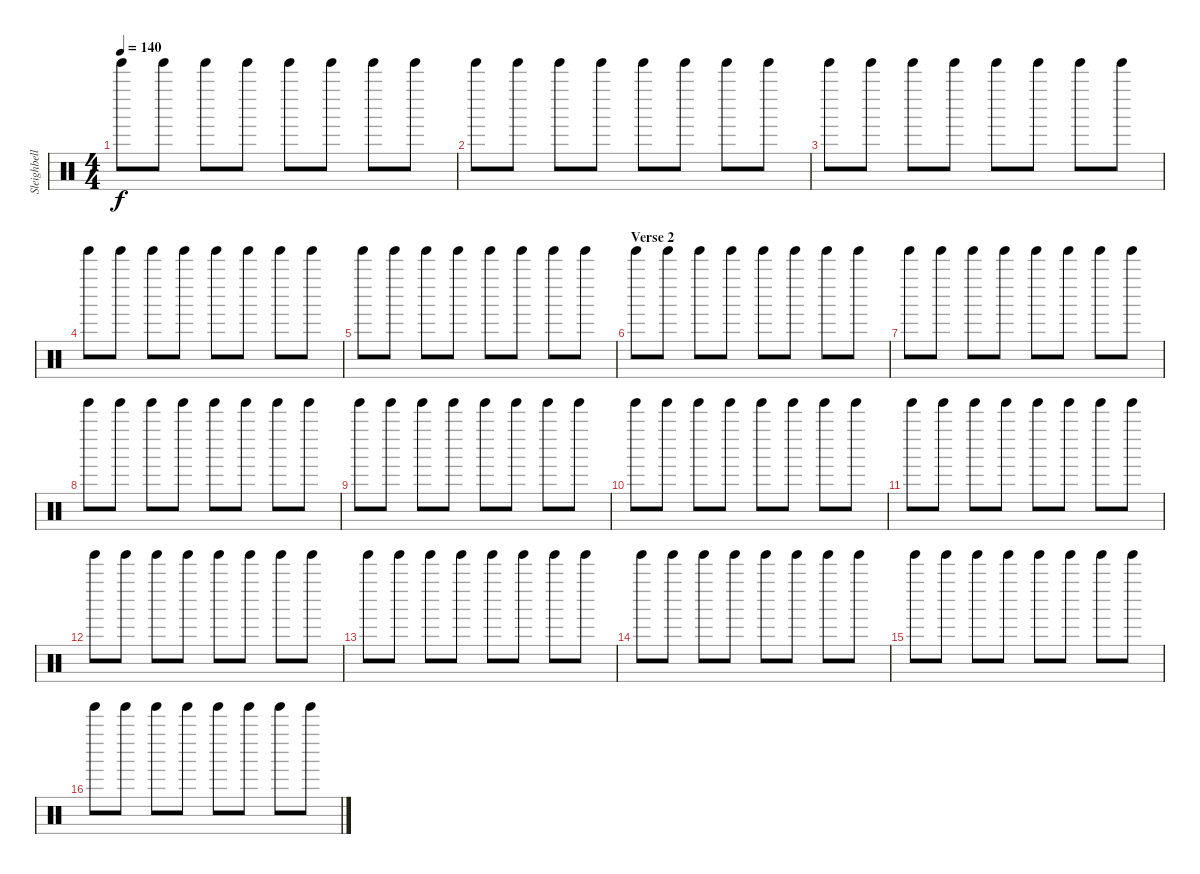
\track ("Sleighbells" "Sleighbell") {instrument percussion}
\staff {score}
\articulation defaults
\ts (4 4)
\tempo 140
\clef neutral
\ks c "Tinkle Bell (hit)".8{dy f} "Tinkle Bell (hit)".8 "Tinkle Bell (hit)".8 "Tinkle Bell (hit)".8 "Tinkle Bell (hit)".8 "Tinkle Bell (hit)".8 "Tinkle Bell (hit)".8 "Tinkle Bell (hit)".8
|
"Tinkle Bell (hit)".8 "Tinkle Bell (hit)".8 "Tinkle Bell (hit)".8 "Tinkle Bell (hit)".8 "Tinkle Bell (hit)".8 "Tinkle Bell (hit)".8 "Tinkle Bell (hit)".8 "Tinkle Bell (hit)".8 |
"Tinkle Bell (hit)".8 "Tinkle Bell (hit)".8 "Tinkle Bell (hit)".8 "Tinkle Bell (hit)".8 "Tinkle Bell (hit)".8 "Tinkle Bell (hit)".8 "Tinkle Bell (hit)".8 "Tinkle Bell (hit)".8 |
"Tinkle Bell (hit)".8 "Tinkle Bell (hit)".8 "Tinkle Bell (hit)".8 "Tinkle Bell (hit)".8 "Tinkle Bell (hit)".8 "Tinkle Bell (hit)".8 "Tinkle Bell (hit)".8 "Tinkle Bell (hit)".8 |
"Tinkle Bell (hit)".8 "Tinkle Bell (hit)".8 "Tinkle Bell (hit)".8 "Tinkle Bell (hit)".8 "Tinkle Bell (hit)".8 "Tinkle Bell (hit)".8 "Tinkle Bell (hit)".8 "Tinkle Bell (hit)".8 |
\section ("" "Verse 2")
"Tinkle Bell (hit)".8 "Tinkle Bell (hit)".8 "Tinkle Bell (hit)".8 "Tinkle Bell (hit)".8 "Tinkle Bell (hit)".8 "Tinkle Bell (hit)".8 "Tinkle Bell (hit)".8 "Tinkle Bell (hit)".8 |
"Tinkle Bell (hit)".8 "Tinkle Bell (hit)".8 "Tinkle Bell (hit)".8 "Tinkle Bell (hit)".8 "Tinkle Bell (hit)".8 "Tinkle Bell (hit)".8 "Tinkle Bell (hit)".8 "Tinkle Bell (hit)".8 |
"Tinkle Bell (hit)".8 "Tinkle Bell (hit)".8 "Tinkle Bell (hit)".8 "Tinkle Bell (hit)".8 "Tinkle Bell (hit)".8 "Tinkle Bell (hit)".8 "Tinkle Bell (hit)".8 "Tinkle Bell (hit)".8 |
"Tinkle Bell (hit)".8 "Tinkle Bell (hit)".8 "Tinkle Bell (hit)".8 "Tinkle Bell (hit)".8 "Tinkle Bell (hit)".8 "Tinkle Bell (hit)".8 "Tinkle Bell (hit)".8 "Tinkle Bell (hit)".8 |
"Tinkle Bell (hit)".8 "Tinkle Bell (hit)".8 "Tinkle Bell (hit)".8 "Tinkle Bell (hit)".8 "Tinkle Bell (hit)".8 "Tinkle Bell (hit)".8 "Tinkle Bell (hit)".8 "Tinkle Bell (hit)".8 |
"Tinkle Bell (hit)".8 "Tinkle Bell (hit)".8 "Tinkle Bell (hit)".8 "Tinkle Bell (hit)".8 "Tinkle Bell (hit)".8 "Tinkle Bell (hit)".8 "Tinkle Bell (hit)".8 "Tinkle Bell (hit)".8 |
"Tinkle Bell (hit)".8 "Tinkle Bell (hit)".8 "Tinkle Bell (hit)".8 "Tinkle Bell (hit)".8 "Tinkle Bell (hit)".8 "Tinkle Bell (hit)".8 "Tinkle Bell (hit)".8 "Tinkle Bell (hit)".8 |
"Tinkle Bell (hit)".8 "Tinkle Bell (hit)".8 "Tinkle Bell (hit)".8 "Tinkle Bell (hit)".8 "Tinkle Bell (hit)".8 "Tinkle Bell (hit)".8 "Tinkle Bell (hit)".8 "Tinkle Bell (hit)".8 |
"Tinkle Bell (hit)".8 "Tinkle Bell (hit)".8 "Tinkle Bell (hit)".8 "Tinkle Bell (hit)".8 "Tinkle Bell (hit)".8 "Tinkle Bell (hit)".8 "Tinkle Bell (hit)".8 "Tinkle Bell (hit)".8 |
"Tinkle Bell (hit)".8 "Tinkle Bell (hit)".8 "Tinkle Bell (hit)".8 "Tinkle Bell (hit)".8 "Tinkle Bell (hit)".8 "Tinkle Bell (hit)".8 "Tinkle Bell (hit)".8 "Tinkle Bell (hit)".8 |
"Tinkle Bell (hit)".8 "Tinkle Bell (hit)".8 "Tinkle Bell (hit)".8 "Tinkle Bell (hit)".8 "Tinkle Bell (hit)".8 "Tinkle Bell (hit)".8 "Tinkle Bell (hit)".8 "Tinkle Bell (hit)".8
